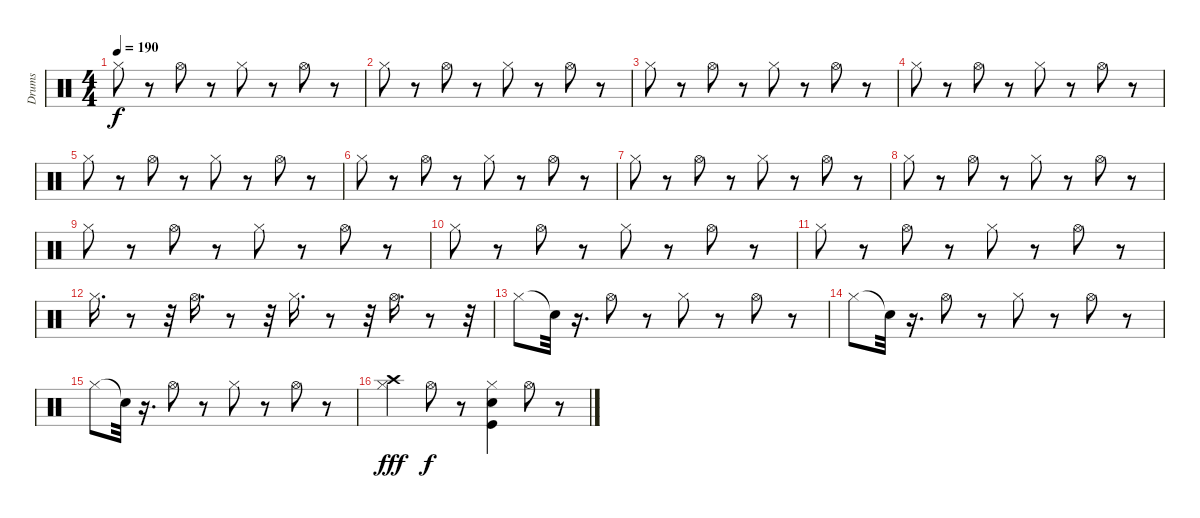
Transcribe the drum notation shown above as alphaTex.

\track ("Drums" "Drums") {instrument percussion}
\staff {score}
\articulation defaults
\ts (4 4)
\tempo 190
\clef neutral
\ks c "Hi-Hat (closed)".8{dy f}
r.8 "Hi-Hat (open)".8 r.8 "Hi-Hat (closed)".8 r.8 "Hi-Hat (open)".8 r.8 |
"Hi-Hat (closed)".8 r.8 "Hi-Hat (open)".8 r.8 "Hi-Hat (closed)".8 r.8 "Hi-Hat (open)".8 r.8 |
"Hi-Hat (closed)".8 r.8 "Hi-Hat (open)".8 r.8 "Hi-Hat (closed)".8 r.8 "Hi-Hat (open)".8 r.8 |
"Hi-Hat (closed)".8 r.8 "Hi-Hat (open)".8 r.8 "Hi-Hat (closed)".8 r.8 "Hi-Hat (open)".8 r.8 |
"Hi-Hat (closed)".8 r.8 "Hi-Hat (open)".8 r.8 "Hi-Hat (closed)".8 r.8 "Hi-Hat (open)".8 r.8 |
"Hi-Hat (closed)".8 r.8 "Hi-Hat (open)".8 r.8 "Hi-Hat (closed)".8 r.8 "Hi-Hat (open)".8 r.8 |
"Hi-Hat (closed)".8 r.8 "Hi-Hat (open)".8 r.8 "Hi-Hat (closed)".8 r.8 "Hi-Hat (open)".8 r.8 |
"Hi-Hat (closed)".8 r.8 "Hi-Hat (open)".8 r.8 "Hi-Hat (closed)".8 r.8 "Hi-Hat (open)".8 r.8 |
"Hi-Hat (closed)".8 r.8 "Hi-Hat (open)".8 r.8 "Hi-Hat (closed)".8 r.8 "Hi-Hat (open)".8 r.8 |
"Hi-Hat (closed)".8 r.8 "Hi-Hat (open)".8 r.8 "Hi-Hat (closed)".8 r.8 "Hi-Hat (open)".8 r.8 |
"Hi-Hat (closed)".8 r.8 "Hi-Hat (open)".8 r.8 "Hi-Hat (closed)".8 r.8 "Hi-Hat (open)".8 r.8 |
"Hi-Hat (closed)".16{d} r.8 r.32 "Hi-Hat (open)".16{d} r.8 r.32 "Hi-Hat (closed)".16{d} r.8 r.32 "Hi-Hat (open)".16{d} r.8 r.32 |
"Hi-Hat (closed)".8 "Snare (hit)"{t}.32 r.16{d} "Hi-Hat (open)".8 r.8 "Hi-Hat (closed)".8 r.8 "Hi-Hat (open)".8 r.8 |
"Hi-Hat (closed)".8 "Snare (hit)"{t}.32 r.16{d} "Hi-Hat (open)".8 r.8 "Hi-Hat (closed)".8 r.8 "Hi-Hat (open)".8 r.8 |
"Hi-Hat (closed)".8 "Snare (hit)"{t}.32 r.16{d} "Hi-Hat (open)".8 r.8 "Hi-Hat (closed)".8 r.8 "Hi-Hat (open)".8 r.8 |
("Crash high (hit)" "Hi-Hat (closed)").4{dy fff} "Hi-Hat (open)".8{dy f} r.8 ("Kick (hit)" "Snare (hit) 2" "Hi-Hat (closed)").4 "Hi-Hat (open)".8 r.8
